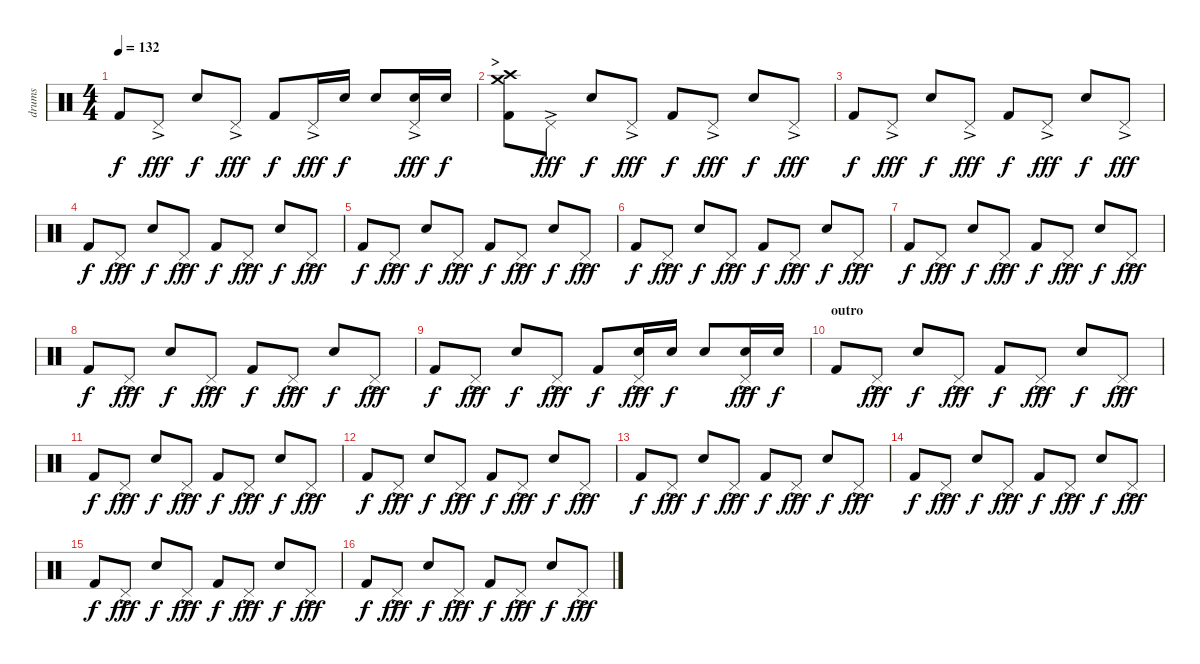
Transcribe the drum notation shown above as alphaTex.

\track ("drums" "drums") {instrument percussion}
\staff {score}
\articulation defaults
\ts (4 4)
\tempo 132
\clef neutral
\ks c "Kick (hit) 2".8{dy f} "Pedal Hi-Hat (hit)"{ac}.8{dy fff} "Snare (hit) 2".8{dy f} "Pedal Hi-Hat (hit)"{ac}.8{dy fff} "Kick (hit) 2".8{dy f} "Pedal Hi-Hat (hit)"{ac}.16{dy fff} "Snare (hit) 2".16{dy f} "Snare (hit) 2".8
("Pedal Hi-Hat (hit)"{ac} "Snare (hit) 2").16{dy fff} "Snare (hit) 2".16{dy f} |
\section ("" ">")
("Kick (hit) 2" "Crash medium (hit)" "Crash high (hit)").8 "Pedal Hi-Hat (hit)"{ac}.8{dy fff} "Snare (hit) 2".8{dy f} "Pedal Hi-Hat (hit)"{ac}.8{dy fff} "Kick (hit) 2".8{dy f} "Pedal Hi-Hat (hit)"{ac}.8{dy fff} "Snare (hit) 2".8{dy f} "Pedal Hi-Hat (hit)"{ac}.8{dy fff} |
"Kick (hit) 2".8{dy f} "Pedal Hi-Hat (hit)"{ac}.8{dy fff} "Snare (hit) 2".8{dy f} "Pedal Hi-Hat (hit)"{ac}.8{dy fff} "Kick (hit) 2".8{dy f} "Pedal Hi-Hat (hit)"{ac}.8{dy fff} "Snare (hit) 2".8{dy f} "Pedal Hi-Hat (hit)"{ac}.8{dy fff} |
"Kick (hit) 2".8{dy f} "Pedal Hi-Hat (hit)"{ac}.8{dy fff} "Snare (hit) 2".8{dy f} "Pedal Hi-Hat (hit)"{ac}.8{dy fff} "Kick (hit) 2".8{dy f} "Pedal Hi-Hat (hit)"{ac}.8{dy fff} "Snare (hit) 2".8{dy f} "Pedal Hi-Hat (hit)"{ac}.8{dy fff} |
"Kick (hit) 2".8{dy f} "Pedal Hi-Hat (hit)"{ac}.8{dy fff} "Snare (hit) 2".8{dy f} "Pedal Hi-Hat (hit)"{ac}.8{dy fff} "Kick (hit) 2".8{dy f} "Pedal Hi-Hat (hit)"{ac}.8{dy fff} "Snare (hit) 2".8{dy f} "Pedal Hi-Hat (hit)"{ac}.8{dy fff} |
"Kick (hit) 2".8{dy f} "Pedal Hi-Hat (hit)"{ac}.8{dy fff} "Snare (hit) 2".8{dy f} "Pedal Hi-Hat (hit)"{ac}.8{dy fff} "Kick (hit) 2".8{dy f} "Pedal Hi-Hat (hit)"{ac}.8{dy fff} "Snare (hit) 2".8{dy f} "Pedal Hi-Hat (hit)"{ac}.8{dy fff} |
"Kick (hit) 2".8{dy f} "Pedal Hi-Hat (hit)"{ac}.8{dy fff} "Snare (hit) 2".8{dy f} "Pedal Hi-Hat (hit)"{ac}.8{dy fff} "Kick (hit) 2".8{dy f} "Pedal Hi-Hat (hit)"{ac}.8{dy fff} "Snare (hit) 2".8{dy f} "Pedal Hi-Hat (hit)"{ac}.8{dy fff} |
"Kick (hit) 2".8{dy f} "Pedal Hi-Hat (hit)"{ac}.8{dy fff} "Snare (hit) 2".8{dy f} "Pedal Hi-Hat (hit)"{ac}.8{dy fff} "Kick (hit) 2".8{dy f} "Pedal Hi-Hat (hit)"{ac}.8{dy fff} "Snare (hit) 2".8{dy f} "Pedal Hi-Hat (hit)"{ac}.8{dy fff} |
"Kick (hit) 2".8{dy f} "Pedal Hi-Hat (hit)"{ac}.8{dy fff} "Snare (hit) 2".8{dy f} "Pedal Hi-Hat (hit)"{ac}.8{dy fff} "Kick (hit) 2".8{dy f} ("Pedal Hi-Hat (hit)"{ac} "Snare (hit) 2").16{dy fff} "Snare (hit) 2".16{dy f} "Snare (hit) 2".8 ("Pedal Hi-Hat (hit)"{ac} "Snare (hit) 2").16{dy fff} "Snare (hit) 2".16{dy f} |
\section ("" "outro")
"Kick (hit) 2".8 "Pedal Hi-Hat (hit)"{ac}.8{dy fff} "Snare (hit) 2".8{dy f} "Pedal Hi-Hat (hit)"{ac}.8{dy fff} "Kick (hit) 2".8{dy f} "Pedal Hi-Hat (hit)"{ac}.8{dy fff} "Snare (hit) 2".8{dy f} "Pedal Hi-Hat (hit)"{ac}.8{dy fff} |
"Kick (hit) 2".8{dy f} "Pedal Hi-Hat (hit)"{ac}.8{dy fff} "Snare (hit) 2".8{dy f} "Pedal Hi-Hat (hit)"{ac}.8{dy fff} "Kick (hit) 2".8{dy f} "Pedal Hi-Hat (hit)"{ac}.8{dy fff} "Snare (hit) 2".8{dy f} "Pedal Hi-Hat (hit)"{ac}.8{dy fff} |
"Kick (hit) 2".8{dy f} "Pedal Hi-Hat (hit)"{ac}.8{dy fff} "Snare (hit) 2".8{dy f} "Pedal Hi-Hat (hit)"{ac}.8{dy fff} "Kick (hit) 2".8{dy f} "Pedal Hi-Hat (hit)"{ac}.8{dy fff} "Snare (hit) 2".8{dy f} "Pedal Hi-Hat (hit)"{ac}.8{dy fff} |
"Kick (hit) 2".8{dy f} "Pedal Hi-Hat (hit)"{ac}.8{dy fff} "Snare (hit) 2".8{dy f} "Pedal Hi-Hat (hit)"{ac}.8{dy fff} "Kick (hit) 2".8{dy f} "Pedal Hi-Hat (hit)"{ac}.8{dy fff} "Snare (hit) 2".8{dy f} "Pedal Hi-Hat (hit)"{ac}.8{dy fff} |
"Kick (hit) 2".8{dy f} "Pedal Hi-Hat (hit)"{ac}.8{dy fff} "Snare (hit) 2".8{dy f} "Pedal Hi-Hat (hit)"{ac}.8{dy fff} "Kick (hit) 2".8{dy f} "Pedal Hi-Hat (hit)"{ac}.8{dy fff} "Snare (hit) 2".8{dy f} "Pedal Hi-Hat (hit)"{ac}.8{dy fff} |
"Kick (hit) 2".8{dy f} "Pedal Hi-Hat (hit)"{ac}.8{dy fff} "Snare (hit) 2".8{dy f} "Pedal Hi-Hat (hit)"{ac}.8{dy fff} "Kick (hit) 2".8{dy f} "Pedal Hi-Hat (hit)"{ac}.8{dy fff} "Snare (hit) 2".8{dy f} "Pedal Hi-Hat (hit)"{ac}.8{dy fff} |
"Kick (hit) 2".8{dy f} "Pedal Hi-Hat (hit)"{ac}.8{dy fff} "Snare (hit) 2".8{dy f} "Pedal Hi-Hat (hit)"{ac}.8{dy fff} "Kick (hit) 2".8{dy f} "Pedal Hi-Hat (hit)"{ac}.8{dy fff} "Snare (hit) 2".8{dy f} "Pedal Hi-Hat (hit)"{ac}.8{dy fff}
